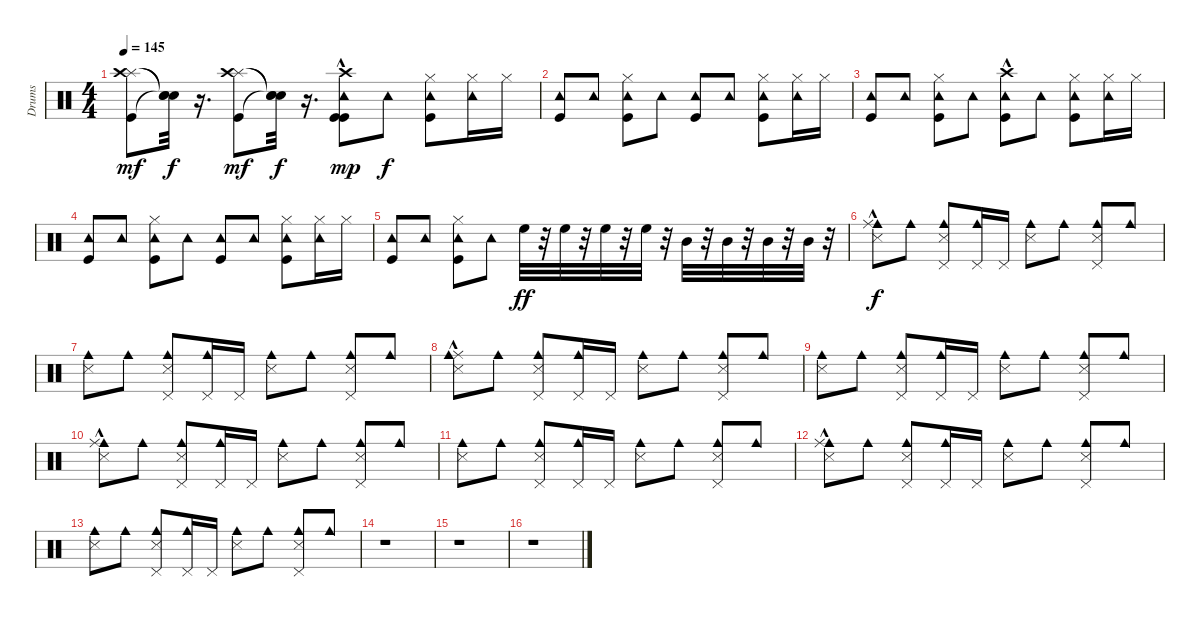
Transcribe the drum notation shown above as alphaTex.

\track ("Drums" "Drums") {instrument percussion}
\staff {score}
\articulation defaults
\ts (4 4)
\tempo 145
\clef neutral
\ks c
("Splash (hit)" "Crash high (hit)" "Kick (hit)").8{dy mf} ("Snare (hit)"{t} "Snare (hit)"{t} "Snare (hit)"{t}).32{dy f} r.16{d} ("Splash (hit)" "Crash high (hit)" "Kick (hit)").8{dy mf} ("Snare (hit)"{t} "Snare (hit)"{t} "Snare (hit)"{t}).32{dy f} r.16{d} ("Kick (hit)" "Tambourine (hit)" "Kick (hit)" "Crash high (hit)"{hac}).8{dy mp} "Tambourine (hit)".8{dy f} ("Tambourine (hit)" "Hi-Hat (closed)" "Kick (hit)").8 ("Hi-Hat (closed)" "Tambourine (hit)").16 "Hi-Hat (closed)".16 |
("Kick (hit)" "Tambourine (hit)").8 "Tambourine (hit)".8 ("Tambourine (hit)" "Hi-Hat (closed)" "Kick (hit)").8 "Tambourine (hit)".8 ("Tambourine (hit)" "Kick (hit)").8 "Tambourine (hit)".8 ("Tambourine (hit)" "Hi-Hat (closed)" "Kick (hit)").8 ("Tambourine (hit)" "Hi-Hat (closed)").16 "Hi-Hat (closed)".16 |
("Tambourine (hit)" "Kick (hit)").8 "Tambourine (hit)".8 ("Kick (hit)" "Hi-Hat (closed)" "Tambourine (hit)").8 "Tambourine (hit)".8 ("Tambourine (hit)" "Kick (hit)" "Crash high (hit)"{hac}).8 "Tambourine (hit)".8 ("Tambourine (hit)" "Hi-Hat (closed)" "Kick (hit)").8 ("Hi-Hat (closed)" "Tambourine (hit)").16 "Hi-Hat (closed)".16 |
("Kick (hit)" "Tambourine (hit)").8 "Tambourine (hit)".8 ("Tambourine (hit)" "Hi-Hat (closed)" "Kick (hit)").8 "Tambourine (hit)".8 ("Tambourine (hit)" "Kick (hit)").8 "Tambourine (hit)".8 ("Tambourine (hit)" "Hi-Hat (closed)" "Kick (hit)").8 ("Tambourine (hit)" "Hi-Hat (closed)").16 "Hi-Hat (closed)".16 |
("Tambourine (hit)" "Kick (hit)").8 "Tambourine (hit)".8 ("Kick (hit)" "Hi-Hat (closed)" "Tambourine (hit)").8 "Tambourine (hit)".8 "High Floor Tom (hit)".32{dy ff} r.32 "High Floor Tom (hit)".32 r.32 "High Floor Tom (hit)".32 r.32 "High Floor Tom (hit)".32 r.32 "Mid Tom (hit)".32 r.32 "Mid Tom (hit)".32 r.32 "Mid Tom (hit)".32 r.32 "Mid Tom (hit)".32 r.32 |
("Cowbell medium (hit)" "Snare (side stick) 3" "Ride (middle)"{hac}).8{dy f} "Cowbell medium (hit)".8 ("Pedal Hi-Hat (hit)" "Snare (side stick) 3" "Cowbell medium (hit)").8 ("Cowbell medium (hit)" "Pedal Hi-Hat (hit)").16 "Pedal Hi-Hat (hit)".16 ("Cowbell medium (hit)" "Snare (side stick) 3").8 "Cowbell medium (hit)".8 ("Cowbell medium (hit)" "Pedal Hi-Hat (hit)" "Snare (side stick) 3").8 "Cowbell medium (hit)".8 |
("Cowbell medium (hit)" "Snare (side stick) 3").8 "Cowbell medium (hit)".8 ("Cowbell medium (hit)" "Pedal Hi-Hat (hit)" "Snare (side stick) 3").8 ("Pedal Hi-Hat (hit)" "Cowbell medium (hit)").16 "Pedal Hi-Hat (hit)".16 ("Snare (side stick) 3" "Cowbell medium (hit)").8 "Cowbell medium (hit)".8 ("Pedal Hi-Hat (hit)" "Snare (side stick) 3" "Cowbell medium (hit)").8 "Cowbell medium (hit)".8 |
("Ride (middle)"{hac} "Cowbell medium (hit)" "Snare (side stick) 3").8 "Cowbell medium (hit)".8 ("Cowbell medium (hit)" "Pedal Hi-Hat (hit)" "Snare (side stick) 3").8 ("Cowbell medium (hit)" "Pedal Hi-Hat (hit)").16 "Pedal Hi-Hat (hit)".16 ("Cowbell medium (hit)" "Snare (side stick) 3").8 "Cowbell medium (hit)".8 ("Pedal Hi-Hat (hit)" "Snare (side stick) 3" "Cowbell medium (hit)").8 "Cowbell medium (hit)".8 |
("Cowbell medium (hit)" "Snare (side stick) 3").8 "Cowbell medium (hit)".8 ("Snare (side stick) 3" "Cowbell medium (hit)" "Pedal Hi-Hat (hit)").8 ("Cowbell medium (hit)" "Pedal Hi-Hat (hit)").16 "Pedal Hi-Hat (hit)".16 ("Cowbell medium (hit)" "Snare (side stick) 3").8 "Cowbell medium (hit)".8 ("Snare (side stick) 3" "Cowbell medium (hit)" "Pedal Hi-Hat (hit)").8 "Cowbell medium (hit)".8 |
("Cowbell medium (hit)" "Snare (side stick) 3" "Ride (middle)"{hac}).8 "Cowbell medium (hit)".8 ("Cowbell medium (hit)" "Pedal Hi-Hat (hit)" "Snare (side stick) 3").8 ("Pedal Hi-Hat (hit)" "Cowbell medium (hit)").16 "Pedal Hi-Hat (hit)".16 ("Snare (side stick) 3" "Cowbell medium (hit)").8 "Cowbell medium (hit)".8 ("Cowbell medium (hit)" "Pedal Hi-Hat (hit)" "Snare (side stick) 3").8 "Cowbell medium (hit)".8 |
("Cowbell medium (hit)" "Snare (side stick) 3").8 "Cowbell medium (hit)".8 ("Cowbell medium (hit)" "Pedal Hi-Hat (hit)" "Snare (side stick) 3").8 ("Cowbell medium (hit)" "Pedal Hi-Hat (hit)").16 "Pedal Hi-Hat (hit)".16 ("Cowbell medium (hit)" "Snare (side stick) 3").8 "Cowbell medium (hit)".8 ("Snare (side stick) 3" "Pedal Hi-Hat (hit)" "Cowbell medium (hit)").8 "Cowbell medium (hit)".8 |
("Cowbell medium (hit)" "Snare (side stick) 3" "Ride (middle)"{hac}).8 "Cowbell medium (hit)".8 ("Cowbell medium (hit)" "Pedal Hi-Hat (hit)" "Snare (side stick) 3").8 ("Pedal Hi-Hat (hit)" "Cowbell medium (hit)").16 "Pedal Hi-Hat (hit)".16 ("Snare (side stick) 3" "Cowbell medium (hit)").8 "Cowbell medium (hit)".8 ("Cowbell medium (hit)" "Pedal Hi-Hat (hit)" "Snare (side stick) 3").8 "Cowbell medium (hit)".8 |
("Cowbell medium (hit)" "Snare (side stick) 3").8 "Cowbell medium (hit)".8 ("Cowbell medium (hit)" "Pedal Hi-Hat (hit)" "Snare (side stick) 3").8 ("Cowbell medium (hit)" "Pedal Hi-Hat (hit)").16 "Pedal Hi-Hat (hit)".16 ("Cowbell medium (hit)" "Snare (side stick) 3").8 "Cowbell medium (hit)".8 ("Snare (side stick) 3" "Pedal Hi-Hat (hit)" "Cowbell medium (hit)").8 "Cowbell medium (hit)".8 |
r.1 |
r.1 |
r.1
